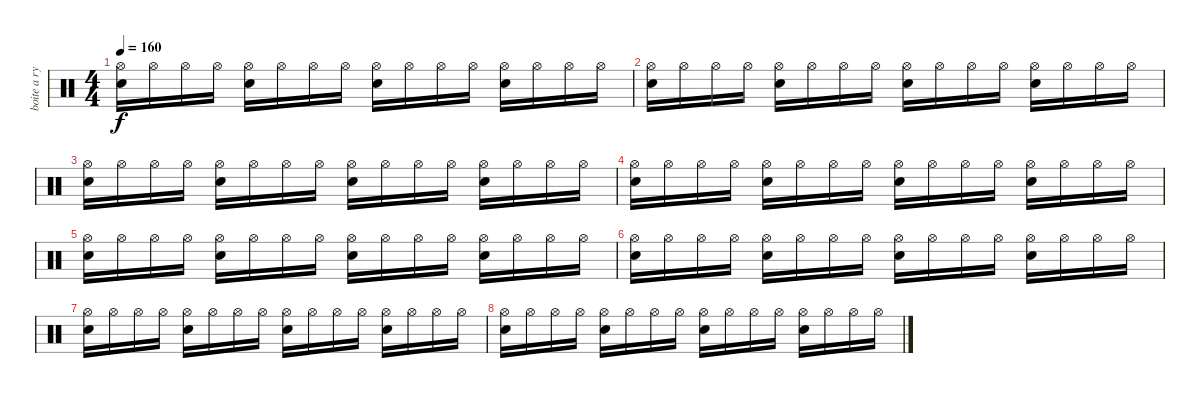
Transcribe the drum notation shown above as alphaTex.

\track ("boite a rythme" "boite a ry") {instrument percussion}
\staff {score}
\articulation defaults
\ts (4 4)
\tempo 160
\clef neutral
\ks c
("Hi-Hat (open)" "Electric Snare (hit)").16{dy f} "Hi-Hat (open)".16 "Hi-Hat (open)".16 "Hi-Hat (open)".16 ("Hi-Hat (open)" "Electric Snare (hit)").16 "Hi-Hat (open)".16 "Hi-Hat (open)".16 "Hi-Hat (open)".16 ("Hi-Hat (open)" "Electric Snare (hit)").16 "Hi-Hat (open)".16 "Hi-Hat (open)".16 "Hi-Hat (open)".16 ("Hi-Hat (open)" "Electric Snare (hit)").16 "Hi-Hat (open)".16 "Hi-Hat (open)".16 "Hi-Hat (open)".16 |
("Hi-Hat (open)" "Electric Snare (hit)").16 "Hi-Hat (open)".16 "Hi-Hat (open)".16 "Hi-Hat (open)".16 ("Hi-Hat (open)" "Electric Snare (hit)").16 "Hi-Hat (open)".16 "Hi-Hat (open)".16 "Hi-Hat (open)".16 ("Hi-Hat (open)" "Electric Snare (hit)").16 "Hi-Hat (open)".16 "Hi-Hat (open)".16 "Hi-Hat (open)".16 ("Hi-Hat (open)" "Electric Snare (hit)").16 "Hi-Hat (open)".16 "Hi-Hat (open)".16 "Hi-Hat (open)".16 |
("Hi-Hat (open)" "Electric Snare (hit)").16 "Hi-Hat (open)".16 "Hi-Hat (open)".16 "Hi-Hat (open)".16 ("Hi-Hat (open)" "Electric Snare (hit)").16 "Hi-Hat (open)".16 "Hi-Hat (open)".16 "Hi-Hat (open)".16 ("Hi-Hat (open)" "Electric Snare (hit)").16 "Hi-Hat (open)".16 "Hi-Hat (open)".16 "Hi-Hat (open)".16 ("Hi-Hat (open)" "Electric Snare (hit)").16 "Hi-Hat (open)".16 "Hi-Hat (open)".16 "Hi-Hat (open)".16 |
("Hi-Hat (open)" "Electric Snare (hit)").16 "Hi-Hat (open)".16 "Hi-Hat (open)".16 "Hi-Hat (open)".16 ("Hi-Hat (open)" "Electric Snare (hit)").16 "Hi-Hat (open)".16 "Hi-Hat (open)".16 "Hi-Hat (open)".16 ("Hi-Hat (open)" "Electric Snare (hit)").16 "Hi-Hat (open)".16 "Hi-Hat (open)".16 "Hi-Hat (open)".16 ("Hi-Hat (open)" "Electric Snare (hit)").16 "Hi-Hat (open)".16 "Hi-Hat (open)".16 "Hi-Hat (open)".16 |
("Hi-Hat (open)" "Electric Snare (hit)").16 "Hi-Hat (open)".16 "Hi-Hat (open)".16 "Hi-Hat (open)".16 ("Hi-Hat (open)" "Electric Snare (hit)").16 "Hi-Hat (open)".16 "Hi-Hat (open)".16 "Hi-Hat (open)".16 ("Hi-Hat (open)" "Electric Snare (hit)").16 "Hi-Hat (open)".16 "Hi-Hat (open)".16 "Hi-Hat (open)".16 ("Hi-Hat (open)" "Electric Snare (hit)").16 "Hi-Hat (open)".16 "Hi-Hat (open)".16 "Hi-Hat (open)".16 |
("Hi-Hat (open)" "Electric Snare (hit)").16 "Hi-Hat (open)".16 "Hi-Hat (open)".16 "Hi-Hat (open)".16 ("Hi-Hat (open)" "Electric Snare (hit)").16 "Hi-Hat (open)".16 "Hi-Hat (open)".16 "Hi-Hat (open)".16 ("Hi-Hat (open)" "Electric Snare (hit)").16 "Hi-Hat (open)".16 "Hi-Hat (open)".16 "Hi-Hat (open)".16 ("Hi-Hat (open)" "Electric Snare (hit)").16 "Hi-Hat (open)".16 "Hi-Hat (open)".16 "Hi-Hat (open)".16 |
("Hi-Hat (open)" "Electric Snare (hit)").16 "Hi-Hat (open)".16 "Hi-Hat (open)".16 "Hi-Hat (open)".16 ("Hi-Hat (open)" "Electric Snare (hit)").16 "Hi-Hat (open)".16 "Hi-Hat (open)".16 "Hi-Hat (open)".16 ("Hi-Hat (open)" "Electric Snare (hit)").16 "Hi-Hat (open)".16 "Hi-Hat (open)".16 "Hi-Hat (open)".16 ("Hi-Hat (open)" "Electric Snare (hit)").16 "Hi-Hat (open)".16 "Hi-Hat (open)".16 "Hi-Hat (open)".16 |
("Hi-Hat (open)" "Electric Snare (hit)").16 "Hi-Hat (open)".16 "Hi-Hat (open)".16 "Hi-Hat (open)".16 ("Hi-Hat (open)" "Electric Snare (hit)").16 "Hi-Hat (open)".16 "Hi-Hat (open)".16 "Hi-Hat (open)".16 ("Hi-Hat (open)" "Electric Snare (hit)").16 "Hi-Hat (open)".16 "Hi-Hat (open)".16 "Hi-Hat (open)".16 ("Hi-Hat (open)" "Electric Snare (hit)").16 "Hi-Hat (open)".16 "Hi-Hat (open)".16 "Hi-Hat (open)".16
